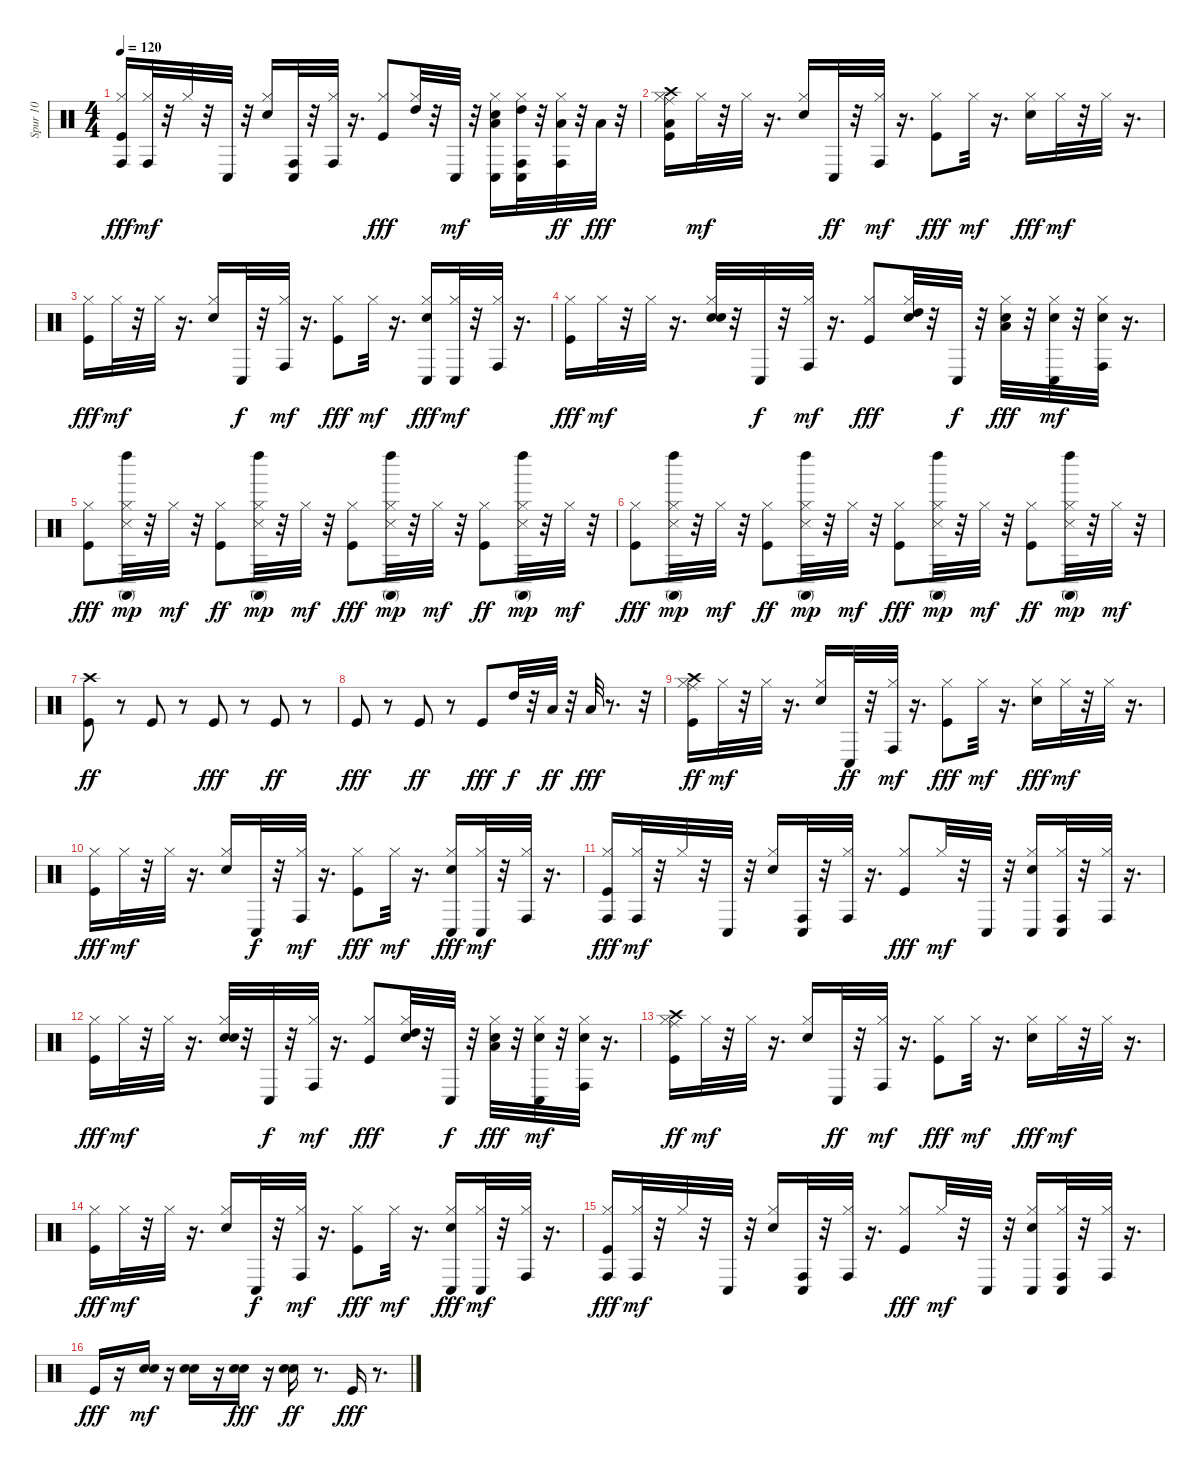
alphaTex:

\track ("Spur 10" "Spur 10") {instrument percussion}
\staff {score}
\articulation defaults
\ts (4 4)
\tempo 120
\clef neutral
\ks c
("Kick (hit)" "Hi-Hat (closed)" "Conga high (hit)").16{dy fff} ("Hi-Hat (closed)" "Conga high (hit)").32{dy mf} r.32 "Hi-Hat (closed)".32 r.32 "Conga low (hit)".32 r.32 ("Snare (hit) 2" "Hi-Hat (closed)").16 ("Conga high (hit)" "Conga low (hit)").32 r.32 ("Hi-Hat (closed)" "Conga high (hit)").32 r.16{d} ("Kick (hit)" "Hi-Hat (closed)").8{dy fff} ("Hi-Hat (closed)" "High Tom (hit)").32 r.32 "Conga low (hit)".32{dy mf} r.32 ("Snare (hit) 2" "Hi-Hat (closed)" "Low Tom (hit)" "Conga low (hit)").16 ("Hi-Hat (closed)" "High Tom (hit)" "Conga high (hit)" "Conga low (hit)").32 r.32 ("Hi-Hat (closed)" "Low Tom (hit)" "Conga high (hit)").32{dy ff} r.32 "Low Tom (hit)".32{dy fff} r.32 |
("Kick (hit)" "Hi-Hat (closed)" "Ride (middle)" "Crash high (hit)" "Low Floor Tom (hit)").16 "Hi-Hat (closed)".32{dy mf} r.32 "Hi-Hat (closed)".32 r.16{d} ("Snare (hit) 2" "Hi-Hat (closed)").16 "Conga low (hit)".32{dy ff} r.32 ("Hi-Hat (closed)" "Conga high (hit)").32{dy mf} r.16{d} ("Kick (hit)" "Hi-Hat (closed)").8{dy fff} "Hi-Hat (closed)".32{dy mf} r.16{d} ("Snare (hit) 2" "Hi-Hat (closed)").16{dy fff} "Hi-Hat (closed)".32{dy mf} r.32 "Hi-Hat (closed)".32 r.16{d} |
("Kick (hit)" "Hi-Hat (closed)").16{dy fff} "Hi-Hat (closed)".32{dy mf} r.32 "Hi-Hat (closed)".32 r.16{d} ("Snare (hit) 2" "Hi-Hat (closed)").16 "Conga low (hit)".32{dy f} r.32 ("Hi-Hat (closed)" "Conga high (hit)").32{dy mf} r.16{d} ("Kick (hit)" "Hi-Hat (closed)").8{dy fff} "Hi-Hat (closed)".32{dy mf} r.16{d} ("Snare (hit) 2" "Hi-Hat (closed)" "Conga low (hit)").16{dy fff} ("Hi-Hat (closed)" "Conga low (hit)").32{dy mf} r.32 ("Hi-Hat (closed)" "Conga high (hit)").32 r.16{d} |
("Kick (hit)" "Hi-Hat (closed)").16{dy fff} "Hi-Hat (closed)".32{dy mf} r.32 "Hi-Hat (closed)".32 r.16{d} ("Snare (hit) 2" "Electric Snare (hit)" "Hi-Hat (closed)").32 r.32 "Conga low (hit)".32{dy f} r.32 ("Hi-Hat (closed)" "Conga high (hit)").32{dy mf} r.16{d} ("Kick (hit)" "Hi-Hat (closed)").8{dy fff} ("Electric Snare (hit)" "Hi-Hat (closed)" "High Tom (hit)").32 r.32 "Conga low (hit)".32{dy f} r.32 ("Snare (hit) 2" "Hi-Hat (closed)" "Low Floor Tom (hit)").32{dy fff} r.32 ("Snare (hit) 2" "Hi-Hat (closed)" "Conga low (hit)").32{dy mf} r.32 ("Snare (hit) 2" "Hi-Hat (closed)" "Conga high (hit)").32 r.16{d} |
("Kick (hit)" "Hi-Hat (closed)").8{dy fff} ("Hi-Hat (closed)" "Snare (side stick) 3" "Conga high (mute)" "Left Maraca (hit)").32{dy mp} r.32 "Hi-Hat (closed)".32{dy mf} r.32 ("Kick (hit)" "Hi-Hat (closed)").8{dy ff} ("Hi-Hat (closed)" "Snare (side stick) 3" "Conga high (mute)" "Left Maraca (hit)").32{dy mp} r.32 "Hi-Hat (closed)".32{dy mf} r.32 ("Kick (hit)" "Hi-Hat (closed)").8{dy fff} ("Hi-Hat (closed)" "Snare (side stick) 3" "Conga high (mute)" "Left Maraca (hit)").32{dy mp} r.32 "Hi-Hat (closed)".32{dy mf} r.32 ("Kick (hit)" "Hi-Hat (closed)").8{dy ff} ("Hi-Hat (closed)" "Snare (side stick) 3" "Conga high (mute)" "Left Maraca (hit)").32{dy mp} r.32 "Hi-Hat (closed)".32{dy mf} r.32 |
("Kick (hit)" "Hi-Hat (closed)").8{dy fff} ("Hi-Hat (closed)" "Snare (side stick) 3" "Conga high (mute)" "Left Maraca (hit)").32{dy mp} r.32 "Hi-Hat (closed)".32{dy mf} r.32 ("Kick (hit)" "Hi-Hat (closed)").8{dy ff} ("Hi-Hat (closed)" "Snare (side stick) 3" "Conga high (mute)" "Left Maraca (hit)").32{dy mp} r.32 "Hi-Hat (closed)".32{dy mf} r.32 ("Kick (hit)" "Hi-Hat (closed)").8{dy fff} ("Hi-Hat (closed)" "Snare (side stick) 3" "Conga high (mute)" "Left Maraca (hit)").32{dy mp} r.32 "Hi-Hat (closed)".32{dy mf} r.32 ("Kick (hit)" "Hi-Hat (closed)").8{dy ff} ("Hi-Hat (closed)" "Snare (side stick) 3" "Conga high (mute)" "Left Maraca (hit)").32{dy mp} r.32 "Hi-Hat (closed)".32{dy mf} r.32 |
("Kick (hit)" "Crash high (hit)").8{dy ff} r.8 "Kick (hit)".8 r.8 "Kick (hit)".8{dy fff} r.8 "Kick (hit)".8{dy ff} r.8 |
"Kick (hit)".8{dy fff} r.8 "Kick (hit)".8{dy ff} r.8 "Kick (hit)".8{dy fff} "High Tom (hit)".32{dy f} r.32 "Low Tom (hit)".32{dy ff} r.32 "Low Floor Tom (hit)".32{dy fff} r.8{d} r.32 |
("Kick (hit)" "Hi-Hat (closed)" "Ride (middle)" "Crash high (hit)").16{dy ff} "Hi-Hat (closed)".32{dy mf} r.32 "Hi-Hat (closed)".32 r.16{d} ("Snare (hit) 2" "Hi-Hat (closed)").16 "Conga low (hit)".32{dy ff} r.32 ("Hi-Hat (closed)" "Conga high (hit)").32{dy mf} r.16{d} ("Kick (hit)" "Hi-Hat (closed)").8{dy fff} "Hi-Hat (closed)".32{dy mf} r.16{d} ("Snare (hit) 2" "Hi-Hat (closed)").16{dy fff} "Hi-Hat (closed)".32{dy mf} r.32 "Hi-Hat (closed)".32 r.16{d} |
("Kick (hit)" "Hi-Hat (closed)").16{dy fff} "Hi-Hat (closed)".32{dy mf} r.32 "Hi-Hat (closed)".32 r.16{d} ("Snare (hit) 2" "Hi-Hat (closed)").16 "Conga low (hit)".32{dy f} r.32 ("Hi-Hat (closed)" "Conga high (hit)").32{dy mf} r.16{d} ("Kick (hit)" "Hi-Hat (closed)").8{dy fff} "Hi-Hat (closed)".32{dy mf} r.16{d} ("Snare (hit) 2" "Hi-Hat (closed)" "Conga low (hit)").16{dy fff} ("Hi-Hat (closed)" "Conga low (hit)").32{dy mf} r.32 ("Hi-Hat (closed)" "Conga high (hit)").32 r.16{d} |
("Kick (hit)" "Hi-Hat (closed)" "Conga high (hit)").16{dy fff} ("Hi-Hat (closed)" "Conga high (hit)").32{dy mf} r.32 "Hi-Hat (closed)".32 r.32 "Conga low (hit)".32 r.32 ("Snare (hit) 2" "Hi-Hat (closed)").16 ("Conga high (hit)" "Conga low (hit)").32 r.32 ("Hi-Hat (closed)" "Conga high (hit)").32 r.16{d} ("Kick (hit)" "Hi-Hat (closed)").8{dy fff} "Hi-Hat (closed)".32{dy mf} r.32 "Conga low (hit)".32 r.32 ("Snare (hit) 2" "Hi-Hat (closed)" "Conga low (hit)").16 ("Hi-Hat (closed)" "Conga high (hit)" "Conga low (hit)").32 r.32 ("Hi-Hat (closed)" "Conga high (hit)").32 r.16{d} |
("Kick (hit)" "Hi-Hat (closed)").16{dy fff} "Hi-Hat (closed)".32{dy mf} r.32 "Hi-Hat (closed)".32 r.16{d} ("Snare (hit) 2" "Electric Snare (hit)" "Hi-Hat (closed)").32 r.32 "Conga low (hit)".32{dy f} r.32 ("Hi-Hat (closed)" "Conga high (hit)").32{dy mf} r.16{d} ("Kick (hit)" "Hi-Hat (closed)").8{dy fff} ("Electric Snare (hit)" "Hi-Hat (closed)" "High Tom (hit)").32 r.32 "Conga low (hit)".32{dy f} r.32 ("Snare (hit) 2" "Hi-Hat (closed)" "Low Floor Tom (hit)").32{dy fff} r.32 ("Snare (hit) 2" "Hi-Hat (closed)" "Conga low (hit)").32{dy mf} r.32 ("Snare (hit) 2" "Hi-Hat (closed)" "Conga high (hit)").32 r.16{d} |
("Kick (hit)" "Hi-Hat (closed)" "Ride (middle)" "Crash high (hit)").16{dy ff} "Hi-Hat (closed)".32{dy mf} r.32 "Hi-Hat (closed)".32 r.16{d} ("Snare (hit) 2" "Hi-Hat (closed)").16 "Conga low (hit)".32{dy ff} r.32 ("Hi-Hat (closed)" "Conga high (hit)").32{dy mf} r.16{d} ("Kick (hit)" "Hi-Hat (closed)").8{dy fff} "Hi-Hat (closed)".32{dy mf} r.16{d} ("Snare (hit) 2" "Hi-Hat (closed)").16{dy fff} "Hi-Hat (closed)".32{dy mf} r.32 "Hi-Hat (closed)".32 r.16{d} |
("Kick (hit)" "Hi-Hat (closed)").16{dy fff} "Hi-Hat (closed)".32{dy mf} r.32 "Hi-Hat (closed)".32 r.16{d} ("Snare (hit) 2" "Hi-Hat (closed)").16 "Conga low (hit)".32{dy f} r.32 ("Hi-Hat (closed)" "Conga high (hit)").32{dy mf} r.16{d} ("Kick (hit)" "Hi-Hat (closed)").8{dy fff} "Hi-Hat (closed)".32{dy mf} r.16{d} ("Snare (hit) 2" "Hi-Hat (closed)" "Conga low (hit)").16{dy fff} ("Hi-Hat (closed)" "Conga low (hit)").32{dy mf} r.32 ("Hi-Hat (closed)" "Conga high (hit)").32 r.16{d} |
("Kick (hit)" "Hi-Hat (closed)" "Conga high (hit)").16{dy fff} ("Hi-Hat (closed)" "Conga high (hit)").32{dy mf} r.32 "Hi-Hat (closed)".32 r.32 "Conga low (hit)".32 r.32 ("Snare (hit) 2" "Hi-Hat (closed)").16 ("Conga high (hit)" "Conga low (hit)").32 r.32 ("Hi-Hat (closed)" "Conga high (hit)").32 r.16{d} ("Kick (hit)" "Hi-Hat (closed)").8{dy fff} "Hi-Hat (closed)".32{dy mf} r.32 "Conga low (hit)".32 r.32 ("Snare (hit) 2" "Hi-Hat (closed)" "Conga low (hit)").16 ("Hi-Hat (closed)" "Conga high (hit)" "Conga low (hit)").32 r.32 ("Hi-Hat (closed)" "Conga high (hit)").32 r.16{d} |
"Kick (hit)".16{dy fff} r.16 ("Snare (hit) 2" "Electric Snare (hit)").16{dy mf} r.16 ("Snare (hit) 2" "Electric Snare (hit)").16 r.16 ("Snare (hit) 2" "Electric Snare (hit)").16{dy fff} r.16 ("Snare (hit) 2" "Electric Snare (hit)").16{dy ff} r.8{d} "Kick (hit)".16{dy fff} r.8{d}
